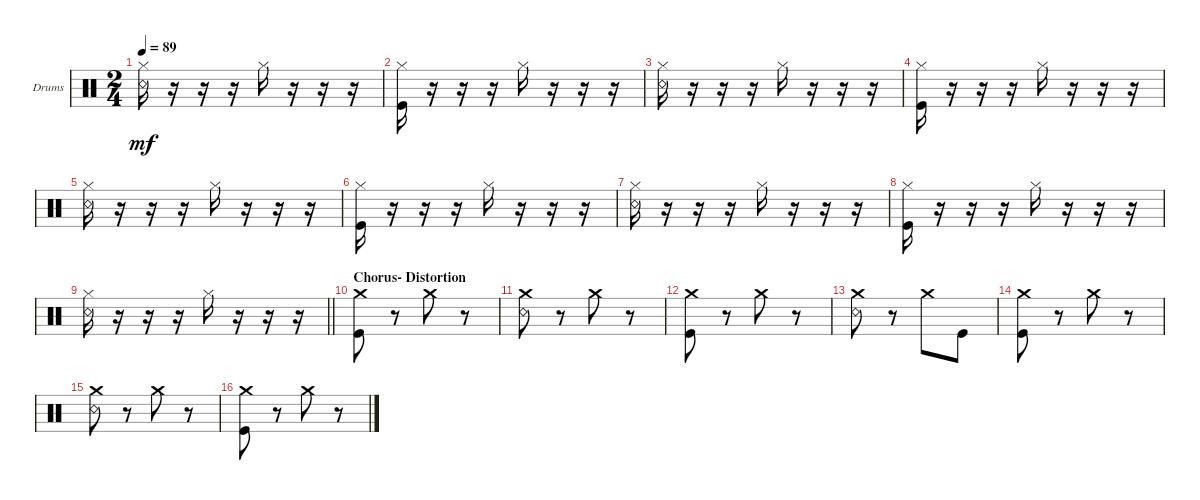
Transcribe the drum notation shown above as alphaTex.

\bracketExtendMode groupsimilarinstruments
\firstSystemTrackNameOrientation horizontal
\otherSystemsTrackNameOrientation horizontal
\track ("Ryo" "Drums") {instrument percussion}
\staff {score}
\articulation defaults
\ts (2 4)
\tempo 89
\clef neutral
\ks c
("Snare (rim shot)" "Hi-Hat (closed)").16{dy mf} r.16 r.16 r.16 "Hi-Hat (closed)".16 r.16 r.16 r.16 |
("Kick (hit)" "Hi-Hat (closed)").16 r.16 r.16 r.16 "Hi-Hat (closed)".16 r.16 r.16 r.16 |
("Snare (rim shot)" "Hi-Hat (closed)").16 r.16 r.16 r.16 "Hi-Hat (closed)".16 r.16 r.16 r.16 |
("Kick (hit)" "Hi-Hat (closed)").16 r.16 r.16 r.16 "Hi-Hat (closed)".16 r.16 r.16 r.16 |
("Snare (rim shot)" "Hi-Hat (closed)").16 r.16 r.16 r.16 "Hi-Hat (closed)".16 r.16 r.16 r.16 |
("Kick (hit)" "Hi-Hat (closed)").16 r.16 r.16 r.16 "Hi-Hat (closed)".16 r.16 r.16 r.16 |
("Snare (rim shot)" "Hi-Hat (closed)").16 r.16 r.16 r.16 "Hi-Hat (closed)".16 r.16 r.16 r.16 |
("Kick (hit)" "Hi-Hat (closed)").16 r.16 r.16 r.16 "Hi-Hat (closed)".16 r.16 r.16 r.16 |
\barLineRight lightlight
("Snare (rim shot)" "Hi-Hat (closed)").16 r.16 r.16 r.16 "Hi-Hat (closed)".16 r.16 r.16 r.16 |
\section ("" "Chorus- Distortion")
("Kick (hit)" "Crash medium (hit)").8 r.8 "Crash medium (hit)".8 r.8 |
("Snare (rim shot)" "Crash medium (hit)").8 r.8 "Crash medium (hit)".8 r.8 |
("Kick (hit)" "Crash medium (hit)").8 r.8 "Crash medium (hit)".8 r.8 |
("Snare (rim shot)" "Crash medium (hit)").8 r.8 "Crash medium (hit)".8 "Kick (hit)".8 |
("Kick (hit)" "Crash medium (hit)").8 r.8 "Crash medium (hit)".8 r.8 |
("Snare (rim shot)" "Crash medium (hit)").8 r.8 "Crash medium (hit)".8 r.8 |
("Kick (hit)" "Crash medium (hit)").8 r.8 "Crash medium (hit)".8 r.8
